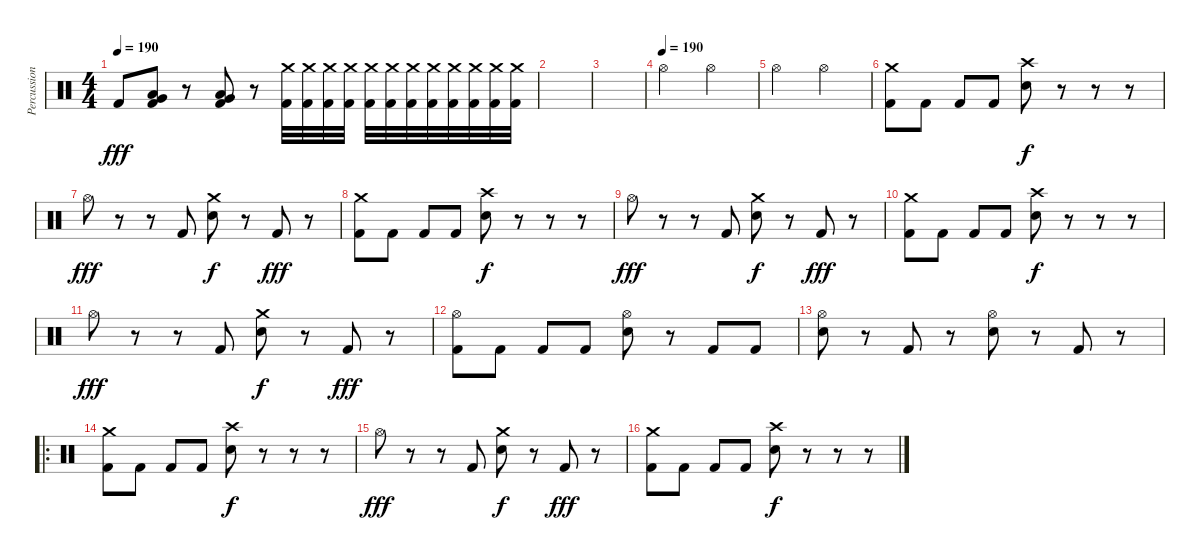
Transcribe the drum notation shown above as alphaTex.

\track ("Percussion" "Percussion") {instrument percussion}
\staff {score}
\articulation defaults
\ts (4 4)
\tempo 190
\clef neutral
\ks c "Kick (hit) 2".8{dy fff}
("Very Low Tom (hit)" "Low Floor Tom (hit)" "Kick (hit) 2").8 r.8 ("Low Tom (hit)" "Very Low Tom (hit)" "Kick (hit) 2").8 r.8 ("Crash medium (hit)" "Kick (hit) 2").32 ("Crash medium (hit)" "Kick (hit) 2").32 ("Crash medium (hit)" "Kick (hit) 2").32 ("Crash medium (hit)" "Kick (hit) 2").32 ("Crash medium (hit)" "Kick (hit) 2").32 ("Crash medium (hit)" "Kick (hit) 2").32 ("Crash medium (hit)" "Kick (hit) 2").32 ("Crash medium (hit)" "Kick (hit) 2").32 ("Crash medium (hit)" "Kick (hit) 2").32 ("Crash medium (hit)" "Kick (hit) 2").32 ("Crash medium (hit)" "Kick (hit) 2").32 ("Crash medium (hit)" "Kick (hit) 2").32 |
|
|
\tempo (190)
"Hi-Hat (open)".2 "Hi-Hat (open)".2 |
"Hi-Hat (open)".2 "Hi-Hat (open)".2 |
("Crash medium (hit)" "Kick (hit) 2").8 "Kick (hit) 2".8 "Kick (hit) 2".8 "Kick (hit) 2".8 ("Crash high (hit)" "Electric Snare (hit)").8{dy f} r.8 r.8 r.8 |
"Hi-Hat (open)".8{dy fff} r.8 r.8 "Kick (hit) 2".8 ("Crash medium (hit)" "Electric Snare (hit)").8{dy f} r.8 "Kick (hit) 2".8{dy fff} r.8 |
("Crash medium (hit)" "Kick (hit) 2").8 "Kick (hit) 2".8 "Kick (hit) 2".8 "Kick (hit) 2".8 ("Crash high (hit)" "Electric Snare (hit)").8{dy f} r.8 r.8 r.8 |
"Hi-Hat (open)".8{dy fff} r.8 r.8 "Kick (hit) 2".8 ("Crash medium (hit)" "Electric Snare (hit)").8{dy f} r.8 "Kick (hit) 2".8{dy fff} r.8 |
("Crash medium (hit)" "Kick (hit) 2").8 "Kick (hit) 2".8 "Kick (hit) 2".8 "Kick (hit) 2".8 ("Crash high (hit)" "Electric Snare (hit)").8{dy f} r.8 r.8 r.8 |
"Hi-Hat (open)".8{dy fff} r.8 r.8 "Kick (hit) 2".8 ("Crash medium (hit)" "Electric Snare (hit)").8{dy f} r.8 "Kick (hit) 2".8{dy fff} r.8 |
("Hi-Hat (open)" "Kick (hit) 2").8 "Kick (hit) 2".8 "Kick (hit) 2".8 "Kick (hit) 2".8 ("Hi-Hat (open)" "Electric Snare (hit)").8 r.8 "Kick (hit) 2".8 "Kick (hit) 2".8 |
("Hi-Hat (open)" "Electric Snare (hit)").8 r.8 "Kick (hit) 2".8 r.8 ("Hi-Hat (open)" "Electric Snare (hit)").8 r.8 "Kick (hit) 2".8 r.8 |
\ro
("Crash medium (hit)" "Kick (hit) 2").8 "Kick (hit) 2".8 "Kick (hit) 2".8 "Kick (hit) 2".8 ("Crash high (hit)" "Electric Snare (hit)").8{dy f} r.8 r.8 r.8 |
"Hi-Hat (open)".8{dy fff} r.8 r.8 "Kick (hit) 2".8 ("Crash medium (hit)" "Electric Snare (hit)").8{dy f} r.8 "Kick (hit) 2".8{dy fff} r.8 |
("Crash medium (hit)" "Kick (hit) 2").8 "Kick (hit) 2".8 "Kick (hit) 2".8 "Kick (hit) 2".8 ("Crash high (hit)" "Electric Snare (hit)").8{dy f} r.8 r.8 r.8
